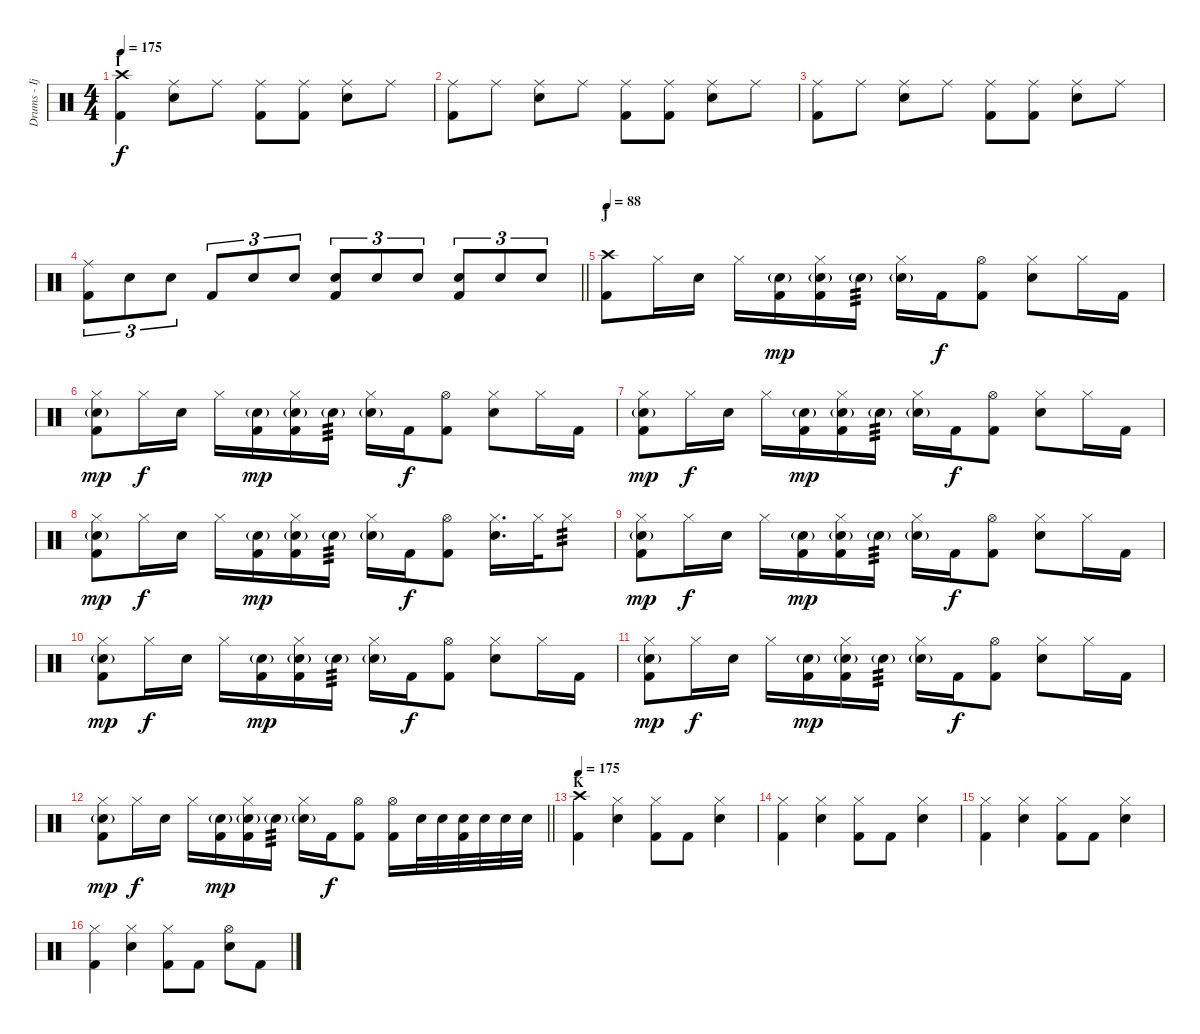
\track ("Drums - Ijichi" "Drums - Ij") {instrument percussion}
\staff {score}
\articulation defaults
\ts (4 4)
\section ("" "I")
\tempo 175
\clef neutral
\ks c
("Crash high (hit)" "Kick (hit) 2").4{dy f} ("Ride (middle)" "Snare (hit) 2").8 "Ride (middle)".8 ("Ride (middle)" "Kick (hit) 2").8 ("Ride (middle)" "Kick (hit) 2").8 ("Ride (middle)" "Snare (hit) 2").8 "Ride (middle)".8 |
("Ride (middle)" "Kick (hit) 2").8 "Ride (middle)".8 ("Ride (middle)" "Snare (hit) 2").8 "Ride (middle)".8 ("Ride (middle)" "Kick (hit) 2").8 ("Ride (middle)" "Kick (hit) 2").8 ("Ride (middle)" "Snare (hit) 2").8 "Ride (middle)".8 |
("Ride (middle)" "Kick (hit) 2").8 "Ride (middle)".8 ("Ride (middle)" "Snare (hit) 2").8 "Ride (middle)".8 ("Ride (middle)" "Kick (hit) 2").8 ("Ride (middle)" "Kick (hit) 2").8 ("Ride (middle)" "Snare (hit) 2").8 "Ride (middle)".8 |
\barLineRight lightlight
("Ride (middle)" "Kick (hit) 2").8{tu (3 2)} "Snare (hit) 2".8{tu (3 2)} "Snare (hit) 2".8{tu (3 2)} "Kick (hit) 2".8{tu (3 2)} "Snare (hit) 2".8{tu (3 2)} "Snare (hit) 2".8{tu (3 2)} ("Snare (hit) 2" "Kick (hit) 2").8{tu (3 2)} "Snare (hit) 2".8{tu (3 2)} "Snare (hit) 2".8{tu (3 2)} ("Snare (hit) 2" "Kick (hit) 2").8{tu (3 2)} "Snare (hit) 2".8{tu (3 2)} "Snare (hit) 2".8{tu (3 2)} |
\section ("" "J")
\tempo 88
("Crash high (hit)" "Kick (hit) 2").8 "Hi-Hat (closed)".16 "Snare (hit) 2".16 "Hi-Hat (closed)".16 ("Snare (hit) 2"{g} "Kick (hit) 2").16{dy mp} ("Hi-Hat (closed)" "Snare (hit) 2"{g} "Kick (hit) 2").16 "Snare (hit) 2"{g}.16{tp 3} ("Hi-Hat (closed)" "Snare (hit) 2"{g}).16 "Kick (hit) 2".16{dy f} ("Hi-Hat (open)" "Kick (hit) 2").8 ("Hi-Hat (closed)" "Snare (hit) 2").8 "Hi-Hat (closed)".16 "Kick (hit) 2".16 |
("Hi-Hat (closed)" "Snare (hit) 2"{g} "Kick (hit) 2").8{dy mp} "Hi-Hat (closed)".16{dy f} "Snare (hit) 2".16 "Hi-Hat (closed)".16 ("Snare (hit) 2"{g} "Kick (hit) 2").16{dy mp} ("Hi-Hat (closed)" "Snare (hit) 2"{g} "Kick (hit) 2").16 "Snare (hit) 2"{g}.16{tp 3} ("Hi-Hat (closed)" "Snare (hit) 2"{g}).16 "Kick (hit) 2".16{dy f} ("Hi-Hat (open)" "Kick (hit) 2").8 ("Hi-Hat (closed)" "Snare (hit) 2").8 "Hi-Hat (closed)".16 "Kick (hit) 2".16 |
("Hi-Hat (closed)" "Snare (hit) 2"{g} "Kick (hit) 2").8{dy mp} "Hi-Hat (closed)".16{dy f} "Snare (hit) 2".16 "Hi-Hat (closed)".16 ("Snare (hit) 2"{g} "Kick (hit) 2").16{dy mp} ("Hi-Hat (closed)" "Snare (hit) 2"{g} "Kick (hit) 2").16 "Snare (hit) 2"{g}.16{tp 3} ("Hi-Hat (closed)" "Snare (hit) 2"{g}).16 "Kick (hit) 2".16{dy f} ("Hi-Hat (open)" "Kick (hit) 2").8 ("Hi-Hat (closed)" "Snare (hit) 2").8 "Hi-Hat (closed)".16 "Kick (hit) 2".16 |
("Hi-Hat (closed)" "Snare (hit) 2"{g} "Kick (hit) 2").8{dy mp} "Hi-Hat (closed)".16{dy f} "Snare (hit) 2".16 "Hi-Hat (closed)".16 ("Snare (hit) 2"{g} "Kick (hit) 2").16{dy mp} ("Hi-Hat (closed)" "Snare (hit) 2"{g} "Kick (hit) 2").16 "Snare (hit) 2"{g}.16{tp 3} ("Hi-Hat (closed)" "Snare (hit) 2"{g}).16 "Kick (hit) 2".16{dy f} ("Hi-Hat (open)" "Kick (hit) 2").8 ("Hi-Hat (closed)" "Snare (hit) 2").16{d} "Hi-Hat (closed)".32 "Hi-Hat (closed)".8{tp 3} |
("Hi-Hat (closed)" "Snare (hit) 2"{g} "Kick (hit) 2").8{dy mp} "Hi-Hat (closed)".16{dy f} "Snare (hit) 2".16 "Hi-Hat (closed)".16 ("Snare (hit) 2"{g} "Kick (hit) 2").16{dy mp} ("Hi-Hat (closed)" "Snare (hit) 2"{g} "Kick (hit) 2").16 "Snare (hit) 2"{g}.16{tp 3} ("Hi-Hat (closed)" "Snare (hit) 2"{g}).16 "Kick (hit) 2".16{dy f} ("Hi-Hat (open)" "Kick (hit) 2").8 ("Hi-Hat (closed)" "Snare (hit) 2").8 "Hi-Hat (closed)".16 "Kick (hit) 2".16 |
("Hi-Hat (closed)" "Snare (hit) 2"{g} "Kick (hit) 2").8{dy mp} "Hi-Hat (closed)".16{dy f} "Snare (hit) 2".16 "Hi-Hat (closed)".16 ("Snare (hit) 2"{g} "Kick (hit) 2").16{dy mp} ("Hi-Hat (closed)" "Snare (hit) 2"{g} "Kick (hit) 2").16 "Snare (hit) 2"{g}.16{tp 3} ("Hi-Hat (closed)" "Snare (hit) 2"{g}).16 "Kick (hit) 2".16{dy f} ("Hi-Hat (open)" "Kick (hit) 2").8 ("Hi-Hat (closed)" "Snare (hit) 2").8 "Hi-Hat (closed)".16 "Kick (hit) 2".16 |
("Hi-Hat (closed)" "Snare (hit) 2"{g} "Kick (hit) 2").8{dy mp} "Hi-Hat (closed)".16{dy f} "Snare (hit) 2".16 "Hi-Hat (closed)".16 ("Snare (hit) 2"{g} "Kick (hit) 2").16{dy mp} ("Hi-Hat (closed)" "Snare (hit) 2"{g} "Kick (hit) 2").16 "Snare (hit) 2"{g}.16{tp 3} ("Hi-Hat (closed)" "Snare (hit) 2"{g}).16 "Kick (hit) 2".16{dy f} ("Hi-Hat (open)" "Kick (hit) 2").8 ("Hi-Hat (closed)" "Snare (hit) 2").8 "Hi-Hat (closed)".16 "Kick (hit) 2".16 |
\barLineRight lightlight
("Hi-Hat (closed)" "Snare (hit) 2"{g} "Kick (hit) 2").8{dy mp} "Hi-Hat (closed)".16{dy f} "Snare (hit) 2".16 "Hi-Hat (closed)".16 ("Snare (hit) 2"{g} "Kick (hit) 2").16{dy mp} ("Hi-Hat (closed)" "Snare (hit) 2"{g} "Kick (hit) 2").16 "Snare (hit) 2"{g}.16{tp 3} ("Hi-Hat (closed)" "Snare (hit) 2"{g}).16 "Kick (hit) 2".16{dy f} ("Hi-Hat (open)" "Kick (hit) 2").8 ("Hi-Hat (open)" "Kick (hit) 2").16 "Snare (hit) 2".32 "Snare (hit) 2".32 ("Snare (hit) 2" "Kick (hit) 2").32 "Snare (hit) 2".32 "Snare (hit) 2".32 "Snare (hit) 2".32 |
\section ("" "K")
\tempo 175
("Crash high (hit)" "Kick (hit) 2").4 ("Hi-Hat (closed)" "Snare (hit) 2").4 ("Hi-Hat (closed)" "Kick (hit) 2").8 "Kick (hit) 2".8 ("Hi-Hat (closed)" "Snare (hit) 2").4 |
("Hi-Hat (closed)" "Kick (hit) 2").4 ("Hi-Hat (closed)" "Snare (hit) 2").4 ("Hi-Hat (closed)" "Kick (hit) 2").8 "Kick (hit) 2".8 ("Hi-Hat (closed)" "Snare (hit) 2").4 |
("Hi-Hat (closed)" "Kick (hit) 2").4 ("Hi-Hat (closed)" "Snare (hit) 2").4 ("Hi-Hat (closed)" "Kick (hit) 2").8 "Kick (hit) 2".8 ("Hi-Hat (closed)" "Snare (hit) 2").4 |
("Hi-Hat (closed)" "Kick (hit) 2").4 ("Hi-Hat (closed)" "Snare (hit) 2").4 ("Hi-Hat (closed)" "Kick (hit) 2").8 "Kick (hit) 2".8 ("Hi-Hat (open)" "Snare (hit) 2").8 "Kick (hit) 2".8
